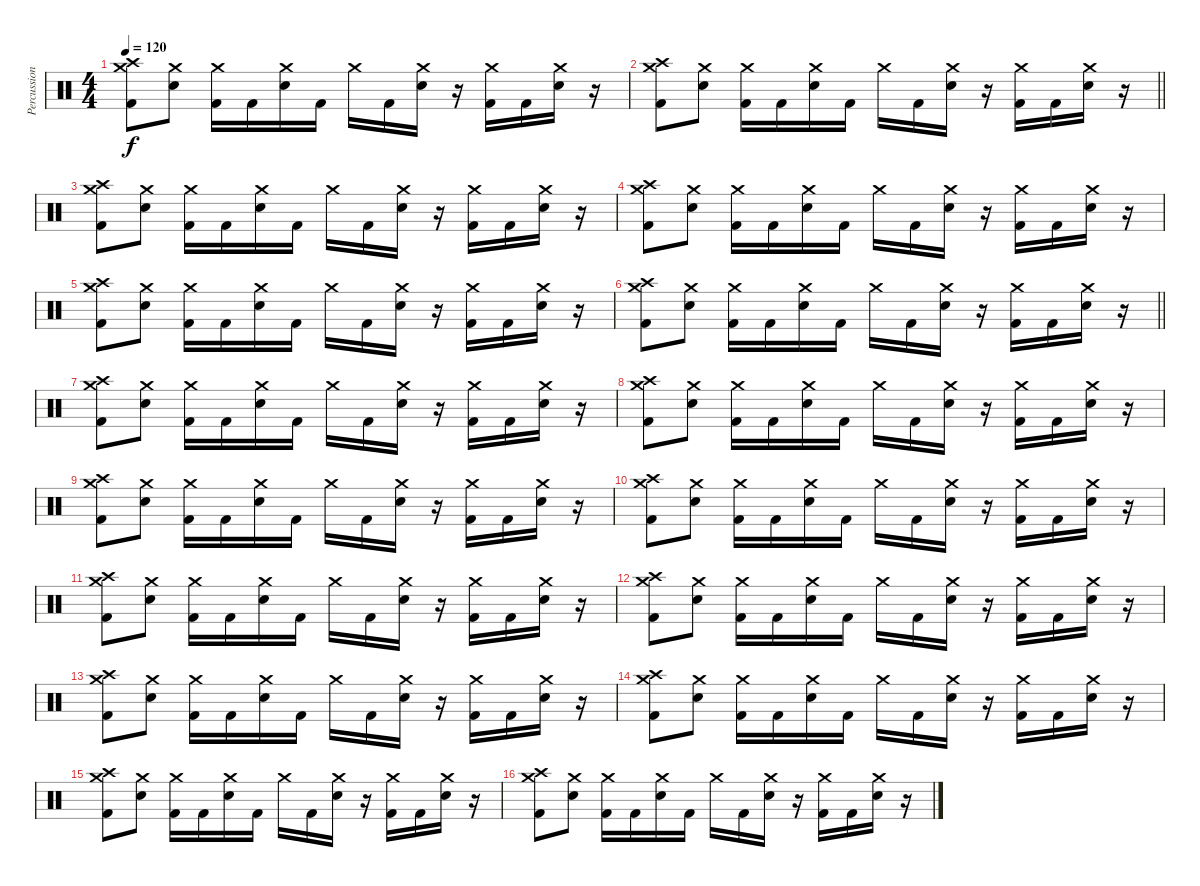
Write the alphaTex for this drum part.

\track ("Percussion" "Percussion") {instrument percussion}
\staff {score}
\articulation defaults
\ts (4 4)
\tempo 120
\clef neutral
\ks c
("Crash medium (hit)" "Crash high (hit)" "Kick (hit) 2").8{dy f} ("Crash medium (hit)" "Electric Snare (hit)").8 ("Crash medium (hit)" "Kick (hit) 2").16 "Kick (hit) 2".16 ("Crash medium (hit)" "Electric Snare (hit)").16 "Kick (hit) 2".16 "Crash medium (hit)".16 "Kick (hit) 2".16 ("Crash medium (hit)" "Electric Snare (hit)").16 r.16 ("Crash medium (hit)" "Kick (hit) 2").16 "Kick (hit) 2".16 ("Crash medium (hit)" "Electric Snare (hit)").16 r.16 |
\barLineRight lightlight
("Crash medium (hit)" "Crash high (hit)" "Kick (hit) 2").8 ("Crash medium (hit)" "Electric Snare (hit)").8 ("Crash medium (hit)" "Kick (hit) 2").16 "Kick (hit) 2".16 ("Crash medium (hit)" "Electric Snare (hit)").16 "Kick (hit) 2".16 "Crash medium (hit)".16 "Kick (hit) 2".16 ("Crash medium (hit)" "Electric Snare (hit)").16 r.16 ("Crash medium (hit)" "Kick (hit) 2").16 "Kick (hit) 2".16 ("Crash medium (hit)" "Electric Snare (hit)").16 r.16 |
("Crash medium (hit)" "Crash high (hit)" "Kick (hit) 2").8 ("Crash medium (hit)" "Electric Snare (hit)").8 ("Crash medium (hit)" "Kick (hit) 2").16 "Kick (hit) 2".16 ("Crash medium (hit)" "Electric Snare (hit)").16 "Kick (hit) 2".16 "Crash medium (hit)".16 "Kick (hit) 2".16 ("Crash medium (hit)" "Electric Snare (hit)").16 r.16 ("Crash medium (hit)" "Kick (hit) 2").16 "Kick (hit) 2".16 ("Crash medium (hit)" "Electric Snare (hit)").16 r.16 |
("Crash medium (hit)" "Crash high (hit)" "Kick (hit) 2").8 ("Crash medium (hit)" "Electric Snare (hit)").8 ("Crash medium (hit)" "Kick (hit) 2").16 "Kick (hit) 2".16 ("Crash medium (hit)" "Electric Snare (hit)").16 "Kick (hit) 2".16 "Crash medium (hit)".16 "Kick (hit) 2".16 ("Crash medium (hit)" "Electric Snare (hit)").16 r.16 ("Crash medium (hit)" "Kick (hit) 2").16 "Kick (hit) 2".16 ("Crash medium (hit)" "Electric Snare (hit)").16 r.16 |
("Crash medium (hit)" "Crash high (hit)" "Kick (hit) 2").8 ("Crash medium (hit)" "Electric Snare (hit)").8 ("Crash medium (hit)" "Kick (hit) 2").16 "Kick (hit) 2".16 ("Crash medium (hit)" "Electric Snare (hit)").16 "Kick (hit) 2".16 "Crash medium (hit)".16 "Kick (hit) 2".16 ("Crash medium (hit)" "Electric Snare (hit)").16 r.16 ("Crash medium (hit)" "Kick (hit) 2").16 "Kick (hit) 2".16 ("Crash medium (hit)" "Electric Snare (hit)").16 r.16 |
\barLineRight lightlight
("Crash medium (hit)" "Crash high (hit)" "Kick (hit) 2").8 ("Crash medium (hit)" "Electric Snare (hit)").8 ("Crash medium (hit)" "Kick (hit) 2").16 "Kick (hit) 2".16 ("Crash medium (hit)" "Electric Snare (hit)").16 "Kick (hit) 2".16 "Crash medium (hit)".16 "Kick (hit) 2".16 ("Crash medium (hit)" "Electric Snare (hit)").16 r.16 ("Crash medium (hit)" "Kick (hit) 2").16 "Kick (hit) 2".16 ("Crash medium (hit)" "Electric Snare (hit)").16 r.16 |
("Crash medium (hit)" "Crash high (hit)" "Kick (hit) 2").8 ("Crash medium (hit)" "Electric Snare (hit)").8 ("Crash medium (hit)" "Kick (hit) 2").16 "Kick (hit) 2".16 ("Crash medium (hit)" "Electric Snare (hit)").16 "Kick (hit) 2".16 "Crash medium (hit)".16 "Kick (hit) 2".16 ("Crash medium (hit)" "Electric Snare (hit)").16 r.16 ("Crash medium (hit)" "Kick (hit) 2").16 "Kick (hit) 2".16 ("Crash medium (hit)" "Electric Snare (hit)").16 r.16 |
("Crash medium (hit)" "Crash high (hit)" "Kick (hit) 2").8 ("Crash medium (hit)" "Electric Snare (hit)").8 ("Crash medium (hit)" "Kick (hit) 2").16 "Kick (hit) 2".16 ("Crash medium (hit)" "Electric Snare (hit)").16 "Kick (hit) 2".16 "Crash medium (hit)".16 "Kick (hit) 2".16 ("Crash medium (hit)" "Electric Snare (hit)").16 r.16 ("Crash medium (hit)" "Kick (hit) 2").16 "Kick (hit) 2".16 ("Crash medium (hit)" "Electric Snare (hit)").16 r.16 |
("Crash medium (hit)" "Crash high (hit)" "Kick (hit) 2").8 ("Crash medium (hit)" "Electric Snare (hit)").8 ("Crash medium (hit)" "Kick (hit) 2").16 "Kick (hit) 2".16 ("Crash medium (hit)" "Electric Snare (hit)").16 "Kick (hit) 2".16 "Crash medium (hit)".16 "Kick (hit) 2".16 ("Crash medium (hit)" "Electric Snare (hit)").16 r.16 ("Crash medium (hit)" "Kick (hit) 2").16 "Kick (hit) 2".16 ("Crash medium (hit)" "Electric Snare (hit)").16 r.16 |
("Crash medium (hit)" "Crash high (hit)" "Kick (hit) 2").8 ("Crash medium (hit)" "Electric Snare (hit)").8 ("Crash medium (hit)" "Kick (hit) 2").16 "Kick (hit) 2".16 ("Crash medium (hit)" "Electric Snare (hit)").16 "Kick (hit) 2".16 "Crash medium (hit)".16 "Kick (hit) 2".16 ("Crash medium (hit)" "Electric Snare (hit)").16 r.16 ("Crash medium (hit)" "Kick (hit) 2").16 "Kick (hit) 2".16 ("Crash medium (hit)" "Electric Snare (hit)").16 r.16 |
("Crash medium (hit)" "Crash high (hit)" "Kick (hit) 2").8 ("Crash medium (hit)" "Electric Snare (hit)").8 ("Crash medium (hit)" "Kick (hit) 2").16 "Kick (hit) 2".16 ("Crash medium (hit)" "Electric Snare (hit)").16 "Kick (hit) 2".16 "Crash medium (hit)".16 "Kick (hit) 2".16 ("Crash medium (hit)" "Electric Snare (hit)").16 r.16 ("Crash medium (hit)" "Kick (hit) 2").16 "Kick (hit) 2".16 ("Crash medium (hit)" "Electric Snare (hit)").16 r.16 |
("Crash medium (hit)" "Crash high (hit)" "Kick (hit) 2").8 ("Crash medium (hit)" "Electric Snare (hit)").8 ("Crash medium (hit)" "Kick (hit) 2").16 "Kick (hit) 2".16 ("Crash medium (hit)" "Electric Snare (hit)").16 "Kick (hit) 2".16 "Crash medium (hit)".16 "Kick (hit) 2".16 ("Crash medium (hit)" "Electric Snare (hit)").16 r.16 ("Crash medium (hit)" "Kick (hit) 2").16 "Kick (hit) 2".16 ("Crash medium (hit)" "Electric Snare (hit)").16 r.16 |
("Crash medium (hit)" "Crash high (hit)" "Kick (hit) 2").8 ("Crash medium (hit)" "Electric Snare (hit)").8 ("Crash medium (hit)" "Kick (hit) 2").16 "Kick (hit) 2".16 ("Crash medium (hit)" "Electric Snare (hit)").16 "Kick (hit) 2".16 "Crash medium (hit)".16 "Kick (hit) 2".16 ("Crash medium (hit)" "Electric Snare (hit)").16 r.16 ("Crash medium (hit)" "Kick (hit) 2").16 "Kick (hit) 2".16 ("Crash medium (hit)" "Electric Snare (hit)").16 r.16 |
("Crash medium (hit)" "Crash high (hit)" "Kick (hit) 2").8 ("Crash medium (hit)" "Electric Snare (hit)").8 ("Crash medium (hit)" "Kick (hit) 2").16 "Kick (hit) 2".16 ("Crash medium (hit)" "Electric Snare (hit)").16 "Kick (hit) 2".16 "Crash medium (hit)".16 "Kick (hit) 2".16 ("Crash medium (hit)" "Electric Snare (hit)").16 r.16 ("Crash medium (hit)" "Kick (hit) 2").16 "Kick (hit) 2".16 ("Crash medium (hit)" "Electric Snare (hit)").16 r.16 |
("Crash medium (hit)" "Crash high (hit)" "Kick (hit) 2").8 ("Crash medium (hit)" "Electric Snare (hit)").8 ("Crash medium (hit)" "Kick (hit) 2").16 "Kick (hit) 2".16 ("Crash medium (hit)" "Electric Snare (hit)").16 "Kick (hit) 2".16 "Crash medium (hit)".16 "Kick (hit) 2".16 ("Crash medium (hit)" "Electric Snare (hit)").16 r.16 ("Crash medium (hit)" "Kick (hit) 2").16 "Kick (hit) 2".16 ("Crash medium (hit)" "Electric Snare (hit)").16 r.16 |
("Crash medium (hit)" "Crash high (hit)" "Kick (hit) 2").8 ("Crash medium (hit)" "Electric Snare (hit)").8 ("Crash medium (hit)" "Kick (hit) 2").16 "Kick (hit) 2".16 ("Crash medium (hit)" "Electric Snare (hit)").16 "Kick (hit) 2".16 "Crash medium (hit)".16 "Kick (hit) 2".16 ("Crash medium (hit)" "Electric Snare (hit)").16 r.16 ("Crash medium (hit)" "Kick (hit) 2").16 "Kick (hit) 2".16 ("Crash medium (hit)" "Electric Snare (hit)").16 r.16
